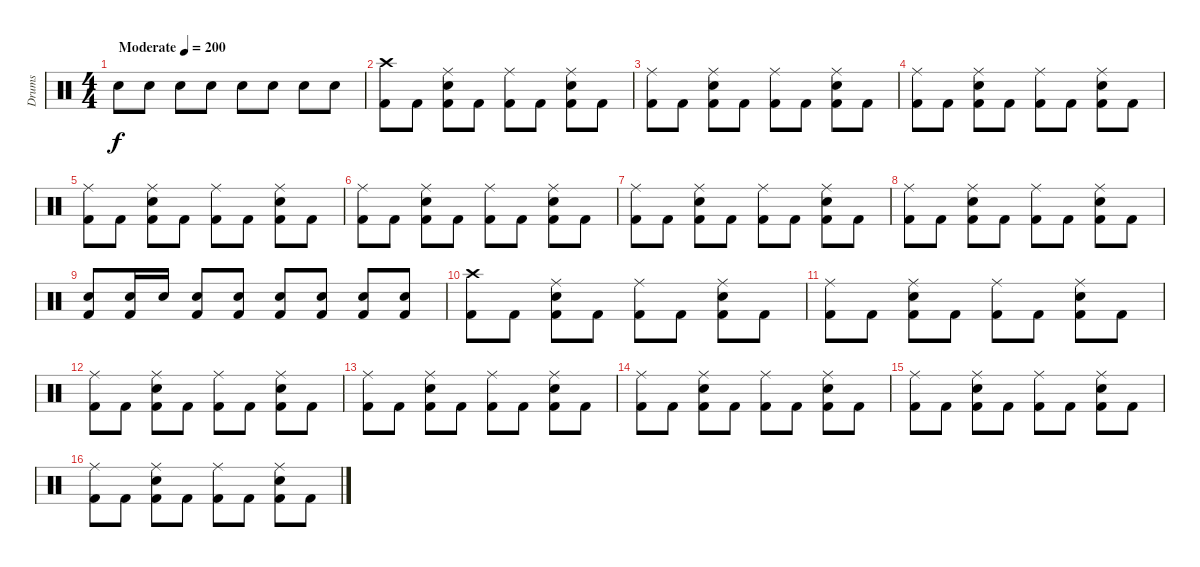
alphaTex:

\track ("Drums" "Drums") {instrument percussion}
\staff {score}
\articulation defaults
\ts (4 4)
\tempo (200 "Moderate")
\clef neutral
\ks c "Snare (hit) 2".8{dy f} "Snare (hit) 2".8 "Snare (hit) 2".8 "Snare (hit) 2".8 "Snare (hit) 2".8 "Snare (hit) 2".8 "Snare (hit) 2".8 "Snare (hit) 2".8
|
("Crash high (hit)" "Kick (hit) 2").8 "Kick (hit) 2".8 ("Ride (middle)" "Snare (hit) 2" "Kick (hit) 2").8 "Kick (hit) 2".8 ("Ride (middle)" "Kick (hit) 2").8 "Kick (hit) 2".8 ("Ride (middle)" "Snare (hit) 2" "Kick (hit) 2").8 "Kick (hit) 2".8 |
("Ride (middle)" "Kick (hit) 2").8 "Kick (hit) 2".8 ("Ride (middle)" "Snare (hit) 2" "Kick (hit) 2").8 "Kick (hit) 2".8 ("Ride (middle)" "Kick (hit) 2").8 "Kick (hit) 2".8 ("Ride (middle)" "Snare (hit) 2" "Kick (hit) 2").8 "Kick (hit) 2".8 |
("Ride (middle)" "Kick (hit) 2").8 "Kick (hit) 2".8 ("Ride (middle)" "Snare (hit) 2" "Kick (hit) 2").8 "Kick (hit) 2".8 ("Ride (middle)" "Kick (hit) 2").8 "Kick (hit) 2".8 ("Ride (middle)" "Snare (hit) 2" "Kick (hit) 2").8 "Kick (hit) 2".8 |
("Ride (middle)" "Kick (hit) 2").8 "Kick (hit) 2".8 ("Ride (middle)" "Snare (hit) 2" "Kick (hit) 2").8 "Kick (hit) 2".8 ("Ride (middle)" "Kick (hit) 2").8 "Kick (hit) 2".8 ("Ride (middle)" "Snare (hit) 2" "Kick (hit) 2").8 "Kick (hit) 2".8 |
("Ride (middle)" "Kick (hit) 2").8 "Kick (hit) 2".8 ("Ride (middle)" "Snare (hit) 2" "Kick (hit) 2").8 "Kick (hit) 2".8 ("Ride (middle)" "Kick (hit) 2").8 "Kick (hit) 2".8 ("Ride (middle)" "Snare (hit) 2" "Kick (hit) 2").8 "Kick (hit) 2".8 |
("Ride (middle)" "Kick (hit) 2").8 "Kick (hit) 2".8 ("Ride (middle)" "Snare (hit) 2" "Kick (hit) 2").8 "Kick (hit) 2".8 ("Ride (middle)" "Kick (hit) 2").8 "Kick (hit) 2".8 ("Ride (middle)" "Snare (hit) 2" "Kick (hit) 2").8 "Kick (hit) 2".8 |
("Ride (middle)" "Kick (hit) 2").8 "Kick (hit) 2".8 ("Ride (middle)" "Snare (hit) 2" "Kick (hit) 2").8 "Kick (hit) 2".8 ("Ride (middle)" "Kick (hit) 2").8 "Kick (hit) 2".8 ("Ride (middle)" "Snare (hit) 2" "Kick (hit) 2").8 "Kick (hit) 2".8 |
("Snare (hit) 2" "Kick (hit) 2").8 ("Snare (hit) 2" "Kick (hit) 2").16 "Snare (hit) 2".16 ("Snare (hit) 2" "Kick (hit) 2").8 ("Snare (hit) 2" "Kick (hit) 2").8 ("Snare (hit) 2" "Kick (hit) 2").8 ("Snare (hit) 2" "Kick (hit) 2").8 ("Snare (hit) 2" "Kick (hit) 2").8 ("Snare (hit) 2" "Kick (hit) 2").8 |
("Crash high (hit)" "Kick (hit) 2").8 "Kick (hit) 2".8 ("Ride (middle)" "Snare (hit) 2" "Kick (hit) 2").8 "Kick (hit) 2".8 ("Ride (middle)" "Kick (hit) 2").8 "Kick (hit) 2".8 ("Ride (middle)" "Snare (hit) 2" "Kick (hit) 2").8 "Kick (hit) 2".8 |
("Ride (middle)" "Kick (hit) 2").8 "Kick (hit) 2".8 ("Ride (middle)" "Snare (hit) 2" "Kick (hit) 2").8 "Kick (hit) 2".8 ("Ride (middle)" "Kick (hit) 2").8 "Kick (hit) 2".8 ("Ride (middle)" "Snare (hit) 2" "Kick (hit) 2").8 "Kick (hit) 2".8 |
("Ride (middle)" "Kick (hit) 2").8 "Kick (hit) 2".8 ("Ride (middle)" "Snare (hit) 2" "Kick (hit) 2").8 "Kick (hit) 2".8 ("Ride (middle)" "Kick (hit) 2").8 "Kick (hit) 2".8 ("Ride (middle)" "Snare (hit) 2" "Kick (hit) 2").8 "Kick (hit) 2".8 |
("Ride (middle)" "Kick (hit) 2").8 "Kick (hit) 2".8 ("Ride (middle)" "Snare (hit) 2" "Kick (hit) 2").8 "Kick (hit) 2".8 ("Ride (middle)" "Kick (hit) 2").8 "Kick (hit) 2".8 ("Ride (middle)" "Snare (hit) 2" "Kick (hit) 2").8 "Kick (hit) 2".8 |
("Ride (middle)" "Kick (hit) 2").8 "Kick (hit) 2".8 ("Ride (middle)" "Snare (hit) 2" "Kick (hit) 2").8 "Kick (hit) 2".8 ("Ride (middle)" "Kick (hit) 2").8 "Kick (hit) 2".8 ("Ride (middle)" "Snare (hit) 2" "Kick (hit) 2").8 "Kick (hit) 2".8 |
("Ride (middle)" "Kick (hit) 2").8 "Kick (hit) 2".8 ("Ride (middle)" "Snare (hit) 2" "Kick (hit) 2").8 "Kick (hit) 2".8 ("Ride (middle)" "Kick (hit) 2").8 "Kick (hit) 2".8 ("Ride (middle)" "Snare (hit) 2" "Kick (hit) 2").8 "Kick (hit) 2".8 |
("Ride (middle)" "Kick (hit) 2").8 "Kick (hit) 2".8 ("Ride (middle)" "Snare (hit) 2" "Kick (hit) 2").8 "Kick (hit) 2".8 ("Ride (middle)" "Kick (hit) 2").8 "Kick (hit) 2".8 ("Ride (middle)" "Snare (hit) 2" "Kick (hit) 2").8 "Kick (hit) 2".8
